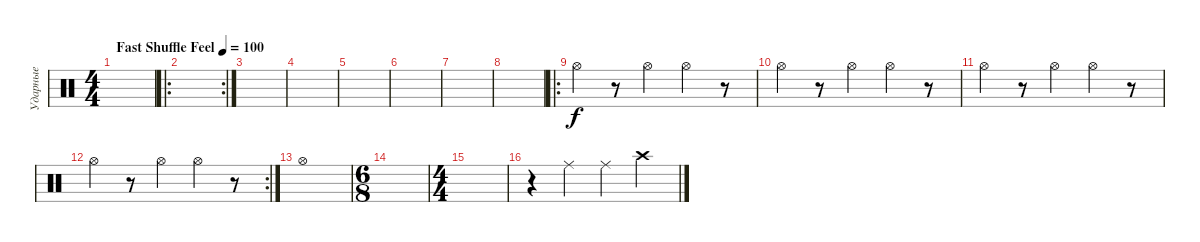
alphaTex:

\track ("Ударные" "Ударные") {instrument percussion}
\staff {score}
\articulation defaults
\ts (4 4)
\tempo (100 "Fast Shuffle Feel")
\clef neutral
\ks c
|
\ro
\rc 2
|
|
|
|
|
|
|
\ro "Hi-Hat (open)".4
r.8 "Hi-Hat (open)".4 "Hi-Hat (open)".4 r.8 |
"Hi-Hat (open)".4 r.8 "Hi-Hat (open)".4 "Hi-Hat (open)".4 r.8 |
"Hi-Hat (open)".4 r.8 "Hi-Hat (open)".4 "Hi-Hat (open)".4 r.8 |
\rc 2 "Hi-Hat (open)".4
r.8 "Hi-Hat (open)".4 "Hi-Hat (open)".4 r.8 |
"Hi-Hat (open)".1 |
\ts (6 8)
|
\ts (4 4)
|
r.4 "Ride (middle)".4 "Ride (middle)".4 "Crash high (hit)".4
